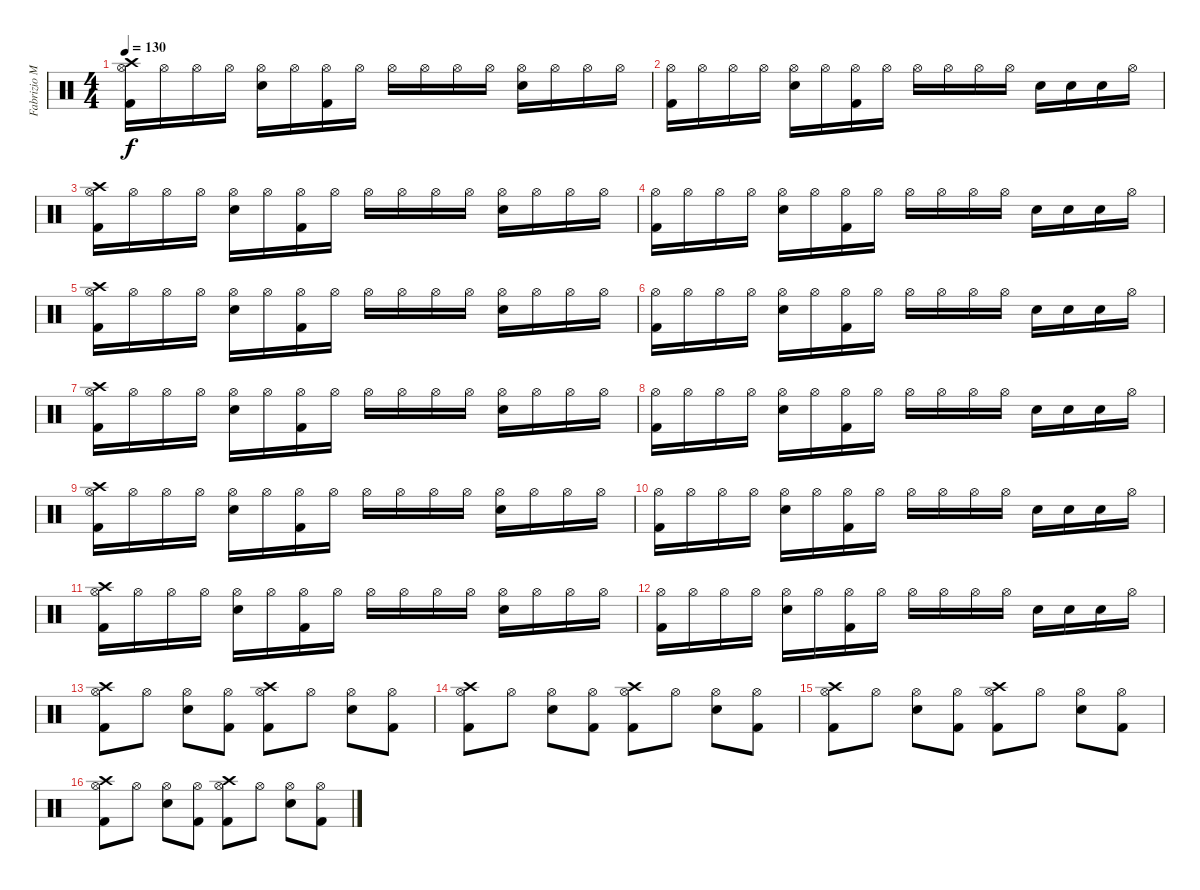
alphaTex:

\track ("Fabrizio Moretti" "Fabrizio M") {instrument percussion bank 127}
\staff {score}
\articulation defaults
\ts (4 4)
\tempo 130
\clef neutral
\ks c
("Crash high (hit)" "Hi-Hat (open)" "Kick (hit) 2").16{dy f} "Hi-Hat (open)".16 "Hi-Hat (open)".16 "Hi-Hat (open)".16 ("Hi-Hat (open)" "Electric Snare (hit)").16 "Hi-Hat (open)".16 ("Hi-Hat (open)" "Kick (hit) 2").16 "Hi-Hat (open)".16 "Hi-Hat (open)".16 "Hi-Hat (open)".16 "Hi-Hat (open)".16 "Hi-Hat (open)".16 ("Hi-Hat (open)" "Electric Snare (hit)").16 "Hi-Hat (open)".16 "Hi-Hat (open)".16 "Hi-Hat (open)".16 |
("Hi-Hat (open)" "Kick (hit) 2").16 "Hi-Hat (open)".16 "Hi-Hat (open)".16 "Hi-Hat (open)".16 ("Hi-Hat (open)" "Electric Snare (hit)").16 "Hi-Hat (open)".16 ("Hi-Hat (open)" "Kick (hit) 2").16 "Hi-Hat (open)".16 "Hi-Hat (open)".16 "Hi-Hat (open)".16 "Hi-Hat (open)".16 "Hi-Hat (open)".16 "Electric Snare (hit)".16 "Electric Snare (hit)".16 "Electric Snare (hit)".16 "Hi-Hat (open)".16 |
("Crash high (hit)" "Hi-Hat (open)" "Kick (hit) 2").16 "Hi-Hat (open)".16 "Hi-Hat (open)".16 "Hi-Hat (open)".16 ("Hi-Hat (open)" "Electric Snare (hit)").16 "Hi-Hat (open)".16 ("Hi-Hat (open)" "Kick (hit) 2").16 "Hi-Hat (open)".16 "Hi-Hat (open)".16 "Hi-Hat (open)".16 "Hi-Hat (open)".16 "Hi-Hat (open)".16 ("Hi-Hat (open)" "Electric Snare (hit)").16 "Hi-Hat (open)".16 "Hi-Hat (open)".16 "Hi-Hat (open)".16 |
("Hi-Hat (open)" "Kick (hit) 2").16 "Hi-Hat (open)".16 "Hi-Hat (open)".16 "Hi-Hat (open)".16 ("Hi-Hat (open)" "Electric Snare (hit)").16 "Hi-Hat (open)".16 ("Hi-Hat (open)" "Kick (hit) 2").16 "Hi-Hat (open)".16 "Hi-Hat (open)".16 "Hi-Hat (open)".16 "Hi-Hat (open)".16 "Hi-Hat (open)".16 "Electric Snare (hit)".16 "Electric Snare (hit)".16 "Electric Snare (hit)".16 "Hi-Hat (open)".16 |
("Crash high (hit)" "Hi-Hat (open)" "Kick (hit) 2").16 "Hi-Hat (open)".16 "Hi-Hat (open)".16 "Hi-Hat (open)".16 ("Hi-Hat (open)" "Electric Snare (hit)").16 "Hi-Hat (open)".16 ("Hi-Hat (open)" "Kick (hit) 2").16 "Hi-Hat (open)".16 "Hi-Hat (open)".16 "Hi-Hat (open)".16 "Hi-Hat (open)".16 "Hi-Hat (open)".16 ("Hi-Hat (open)" "Electric Snare (hit)").16 "Hi-Hat (open)".16 "Hi-Hat (open)".16 "Hi-Hat (open)".16 |
("Hi-Hat (open)" "Kick (hit) 2").16 "Hi-Hat (open)".16 "Hi-Hat (open)".16 "Hi-Hat (open)".16 ("Hi-Hat (open)" "Electric Snare (hit)").16 "Hi-Hat (open)".16 ("Hi-Hat (open)" "Kick (hit) 2").16 "Hi-Hat (open)".16 "Hi-Hat (open)".16 "Hi-Hat (open)".16 "Hi-Hat (open)".16 "Hi-Hat (open)".16 "Electric Snare (hit)".16 "Electric Snare (hit)".16 "Electric Snare (hit)".16 "Hi-Hat (open)".16 |
("Crash high (hit)" "Hi-Hat (open)" "Kick (hit) 2").16 "Hi-Hat (open)".16 "Hi-Hat (open)".16 "Hi-Hat (open)".16 ("Hi-Hat (open)" "Electric Snare (hit)").16 "Hi-Hat (open)".16 ("Hi-Hat (open)" "Kick (hit) 2").16 "Hi-Hat (open)".16 "Hi-Hat (open)".16 "Hi-Hat (open)".16 "Hi-Hat (open)".16 "Hi-Hat (open)".16 ("Hi-Hat (open)" "Electric Snare (hit)").16 "Hi-Hat (open)".16 "Hi-Hat (open)".16 "Hi-Hat (open)".16 |
("Hi-Hat (open)" "Kick (hit) 2").16 "Hi-Hat (open)".16 "Hi-Hat (open)".16 "Hi-Hat (open)".16 ("Hi-Hat (open)" "Electric Snare (hit)").16 "Hi-Hat (open)".16 ("Hi-Hat (open)" "Kick (hit) 2").16 "Hi-Hat (open)".16 "Hi-Hat (open)".16 "Hi-Hat (open)".16 "Hi-Hat (open)".16 "Hi-Hat (open)".16 "Electric Snare (hit)".16 "Electric Snare (hit)".16 "Electric Snare (hit)".16 "Hi-Hat (open)".16 |
("Crash high (hit)" "Hi-Hat (open)" "Kick (hit) 2").16 "Hi-Hat (open)".16 "Hi-Hat (open)".16 "Hi-Hat (open)".16 ("Hi-Hat (open)" "Electric Snare (hit)").16 "Hi-Hat (open)".16 ("Hi-Hat (open)" "Kick (hit) 2").16 "Hi-Hat (open)".16 "Hi-Hat (open)".16 "Hi-Hat (open)".16 "Hi-Hat (open)".16 "Hi-Hat (open)".16 ("Hi-Hat (open)" "Electric Snare (hit)").16 "Hi-Hat (open)".16 "Hi-Hat (open)".16 "Hi-Hat (open)".16 |
("Hi-Hat (open)" "Kick (hit) 2").16 "Hi-Hat (open)".16 "Hi-Hat (open)".16 "Hi-Hat (open)".16 ("Hi-Hat (open)" "Electric Snare (hit)").16 "Hi-Hat (open)".16 ("Hi-Hat (open)" "Kick (hit) 2").16 "Hi-Hat (open)".16 "Hi-Hat (open)".16 "Hi-Hat (open)".16 "Hi-Hat (open)".16 "Hi-Hat (open)".16 "Electric Snare (hit)".16 "Electric Snare (hit)".16 "Electric Snare (hit)".16 "Hi-Hat (open)".16 |
("Crash high (hit)" "Hi-Hat (open)" "Kick (hit) 2").16 "Hi-Hat (open)".16 "Hi-Hat (open)".16 "Hi-Hat (open)".16 ("Hi-Hat (open)" "Electric Snare (hit)").16 "Hi-Hat (open)".16 ("Hi-Hat (open)" "Kick (hit) 2").16 "Hi-Hat (open)".16 "Hi-Hat (open)".16 "Hi-Hat (open)".16 "Hi-Hat (open)".16 "Hi-Hat (open)".16 ("Hi-Hat (open)" "Electric Snare (hit)").16 "Hi-Hat (open)".16 "Hi-Hat (open)".16 "Hi-Hat (open)".16 |
("Hi-Hat (open)" "Kick (hit) 2").16 "Hi-Hat (open)".16 "Hi-Hat (open)".16 "Hi-Hat (open)".16 ("Hi-Hat (open)" "Electric Snare (hit)").16 "Hi-Hat (open)".16 ("Hi-Hat (open)" "Kick (hit) 2").16 "Hi-Hat (open)".16 "Hi-Hat (open)".16 "Hi-Hat (open)".16 "Hi-Hat (open)".16 "Hi-Hat (open)".16 "Electric Snare (hit)".16 "Electric Snare (hit)".16 "Electric Snare (hit)".16 "Hi-Hat (open)".16 |
("Crash high (hit)" "Hi-Hat (open)" "Kick (hit) 2").8 "Hi-Hat (open)".8 ("Hi-Hat (open)" "Electric Snare (hit)").8 ("Hi-Hat (open)" "Kick (hit) 2").8 ("Crash high (hit)" "Hi-Hat (open)" "Kick (hit) 2").8 "Hi-Hat (open)".8 ("Hi-Hat (open)" "Electric Snare (hit)").8 ("Hi-Hat (open)" "Kick (hit) 2").8 |
("Crash high (hit)" "Hi-Hat (open)" "Kick (hit) 2").8 "Hi-Hat (open)".8 ("Hi-Hat (open)" "Electric Snare (hit)").8 ("Hi-Hat (open)" "Kick (hit) 2").8 ("Crash high (hit)" "Hi-Hat (open)" "Kick (hit) 2").8 "Hi-Hat (open)".8 ("Hi-Hat (open)" "Electric Snare (hit)").8 ("Hi-Hat (open)" "Kick (hit) 2").8 |
("Crash high (hit)" "Hi-Hat (open)" "Kick (hit) 2").8 "Hi-Hat (open)".8 ("Hi-Hat (open)" "Electric Snare (hit)").8 ("Hi-Hat (open)" "Kick (hit) 2").8 ("Crash high (hit)" "Hi-Hat (open)" "Kick (hit) 2").8 "Hi-Hat (open)".8 ("Hi-Hat (open)" "Electric Snare (hit)").8 ("Hi-Hat (open)" "Kick (hit) 2").8 |
("Crash high (hit)" "Hi-Hat (open)" "Kick (hit) 2").8 "Hi-Hat (open)".8 ("Hi-Hat (open)" "Electric Snare (hit)").8 ("Hi-Hat (open)" "Kick (hit) 2").8 ("Crash high (hit)" "Hi-Hat (open)" "Kick (hit) 2").8 "Hi-Hat (open)".8 ("Hi-Hat (open)" "Electric Snare (hit)").8 ("Hi-Hat (open)" "Kick (hit) 2").8
